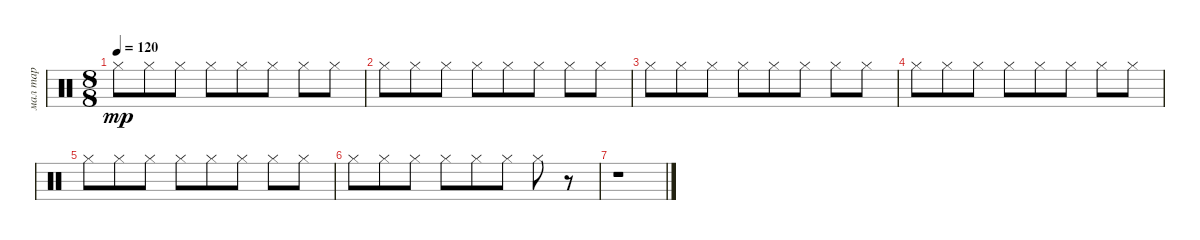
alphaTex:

\track ("мал тар" "мал тар") {instrument percussion}
\staff {score}
\articulation defaults
\ts (8 8)
\tempo 120
\clef neutral
\ks c "Hi-Hat (closed)".8{dy mp volume 10} "Hi-Hat (closed)".8{volume 10} "Hi-Hat (closed)".8{volume 9} "Hi-Hat (closed)".8{volume 9} "Hi-Hat (closed)".8{volume 9} "Hi-Hat (closed)".8{volume 9} "Hi-Hat (closed)".8 "Hi-Hat (closed)".8{volume 8}
|
"Hi-Hat (closed)".8{volume 8} "Hi-Hat (closed)".8{volume 8} "Hi-Hat (closed)".8{volume 8} "Hi-Hat (closed)".8{volume 7} "Hi-Hat (closed)".8{volume 7} "Hi-Hat (closed)".8{volume 6} "Hi-Hat (closed)".8{volume 6} "Hi-Hat (closed)".8{volume 6} |
"Hi-Hat (closed)".8{volume 5} "Hi-Hat (closed)".8{volume 5} "Hi-Hat (closed)".8{volume 5} "Hi-Hat (closed)".8{volume 5} "Hi-Hat (closed)".8{volume 5} "Hi-Hat (closed)".8 "Hi-Hat (closed)".8{volume 4} "Hi-Hat (closed)".8{volume 4} |
"Hi-Hat (closed)".8{volume 4} "Hi-Hat (closed)".8{volume 4} "Hi-Hat (closed)".8{volume 4} "Hi-Hat (closed)".8 "Hi-Hat (closed)".8{volume 4} "Hi-Hat (closed)".8{volume 3} "Hi-Hat (closed)".8 "Hi-Hat (closed)".8{volume 3} |
"Hi-Hat (closed)".8 "Hi-Hat (closed)".8{volume 3} "Hi-Hat (closed)".8{volume 3} "Hi-Hat (closed)".8{volume 2} "Hi-Hat (closed)".8{volume 2} "Hi-Hat (closed)".8{volume 2} "Hi-Hat (closed)".8{volume 2} "Hi-Hat (closed)".8{volume 2} |
"Hi-Hat (closed)".8{volume 2} "Hi-Hat (closed)".8{volume 1} "Hi-Hat (closed)".8{volume 0} "Hi-Hat (closed)".8{volume 0} "Hi-Hat (closed)".8 "Hi-Hat (closed)".8 "Hi-Hat (closed)".8 r.8 |
r.1
